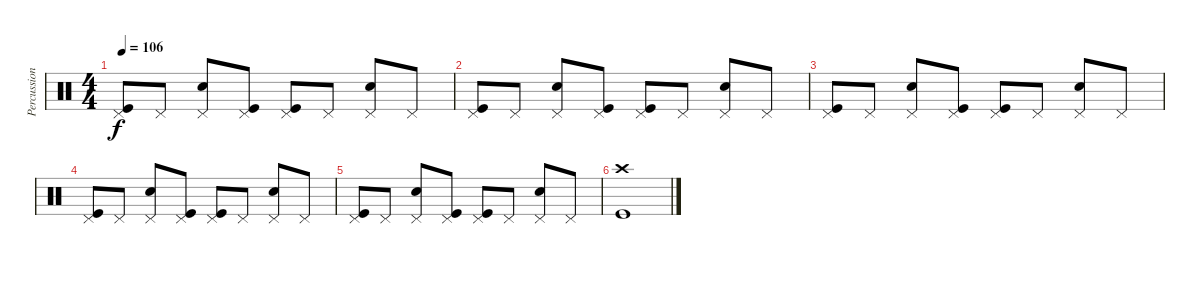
\track ("Percussion" "Percussion") {instrument percussion}
\staff {score}
\articulation defaults
\ts (4 4)
\tempo 106
\clef neutral
\ks c
("Pedal Hi-Hat (hit)" "Kick (hit)").8{dy f} "Pedal Hi-Hat (hit)".8 ("Pedal Hi-Hat (hit)" "Snare (hit) 2").8 ("Pedal Hi-Hat (hit)" "Kick (hit)").8 ("Pedal Hi-Hat (hit)" "Kick (hit)").8 "Pedal Hi-Hat (hit)".8 ("Pedal Hi-Hat (hit)" "Snare (hit) 2").8 "Pedal Hi-Hat (hit)".8 |
("Pedal Hi-Hat (hit)" "Kick (hit)").8 "Pedal Hi-Hat (hit)".8 ("Pedal Hi-Hat (hit)" "Snare (hit) 2").8 ("Pedal Hi-Hat (hit)" "Kick (hit)").8 ("Pedal Hi-Hat (hit)" "Kick (hit)").8 "Pedal Hi-Hat (hit)".8 ("Pedal Hi-Hat (hit)" "Snare (hit) 2").8 "Pedal Hi-Hat (hit)".8 |
("Pedal Hi-Hat (hit)" "Kick (hit)").8 "Pedal Hi-Hat (hit)".8 ("Pedal Hi-Hat (hit)" "Snare (hit) 2").8 ("Pedal Hi-Hat (hit)" "Kick (hit)").8 ("Pedal Hi-Hat (hit)" "Kick (hit)").8 "Pedal Hi-Hat (hit)".8 ("Pedal Hi-Hat (hit)" "Snare (hit) 2").8 "Pedal Hi-Hat (hit)".8 |
("Pedal Hi-Hat (hit)" "Kick (hit)").8 "Pedal Hi-Hat (hit)".8 ("Pedal Hi-Hat (hit)" "Snare (hit) 2").8 ("Pedal Hi-Hat (hit)" "Kick (hit)").8 ("Pedal Hi-Hat (hit)" "Kick (hit)").8 "Pedal Hi-Hat (hit)".8 ("Pedal Hi-Hat (hit)" "Snare (hit) 2").8 "Pedal Hi-Hat (hit)".8 |
("Pedal Hi-Hat (hit)" "Kick (hit)").8 "Pedal Hi-Hat (hit)".8 ("Pedal Hi-Hat (hit)" "Snare (hit) 2").8 ("Pedal Hi-Hat (hit)" "Kick (hit)").8 ("Pedal Hi-Hat (hit)" "Kick (hit)").8 "Pedal Hi-Hat (hit)".8 ("Pedal Hi-Hat (hit)" "Snare (hit) 2").8 "Pedal Hi-Hat (hit)".8 |
("Crash high (hit)" "Kick (hit)").1
